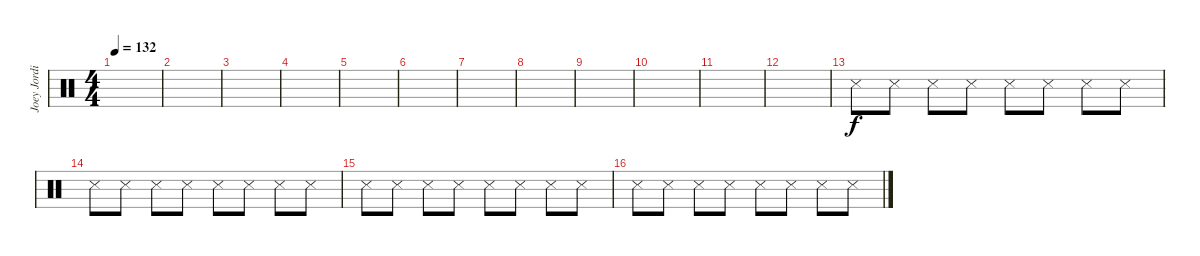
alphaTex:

\track ("Joey Jordison (Intro)" "Joey Jordi") {instrument percussion}
\staff {score}
\articulation defaults
\ts (4 4)
\tempo 132
\clef neutral
\ks c
|
|
|
|
|
|
|
|
|
|
|
|
"Snare (side stick) 3".8 "Snare (side stick) 3".8 "Snare (side stick) 3".8 "Snare (side stick) 3".8 "Snare (side stick) 3".8 "Snare (side stick) 3".8 "Snare (side stick) 3".8 "Snare (side stick) 3".8 |
"Snare (side stick) 3".8 "Snare (side stick) 3".8 "Snare (side stick) 3".8 "Snare (side stick) 3".8 "Snare (side stick) 3".8 "Snare (side stick) 3".8 "Snare (side stick) 3".8 "Snare (side stick) 3".8 |
"Snare (side stick) 3".8 "Snare (side stick) 3".8 "Snare (side stick) 3".8 "Snare (side stick) 3".8 "Snare (side stick) 3".8 "Snare (side stick) 3".8 "Snare (side stick) 3".8 "Snare (side stick) 3".8 |
"Snare (side stick) 3".8 "Snare (side stick) 3".8 "Snare (side stick) 3".8 "Snare (side stick) 3".8 "Snare (side stick) 3".8 "Snare (side stick) 3".8 "Snare (side stick) 3".8 "Snare (side stick) 3".8
